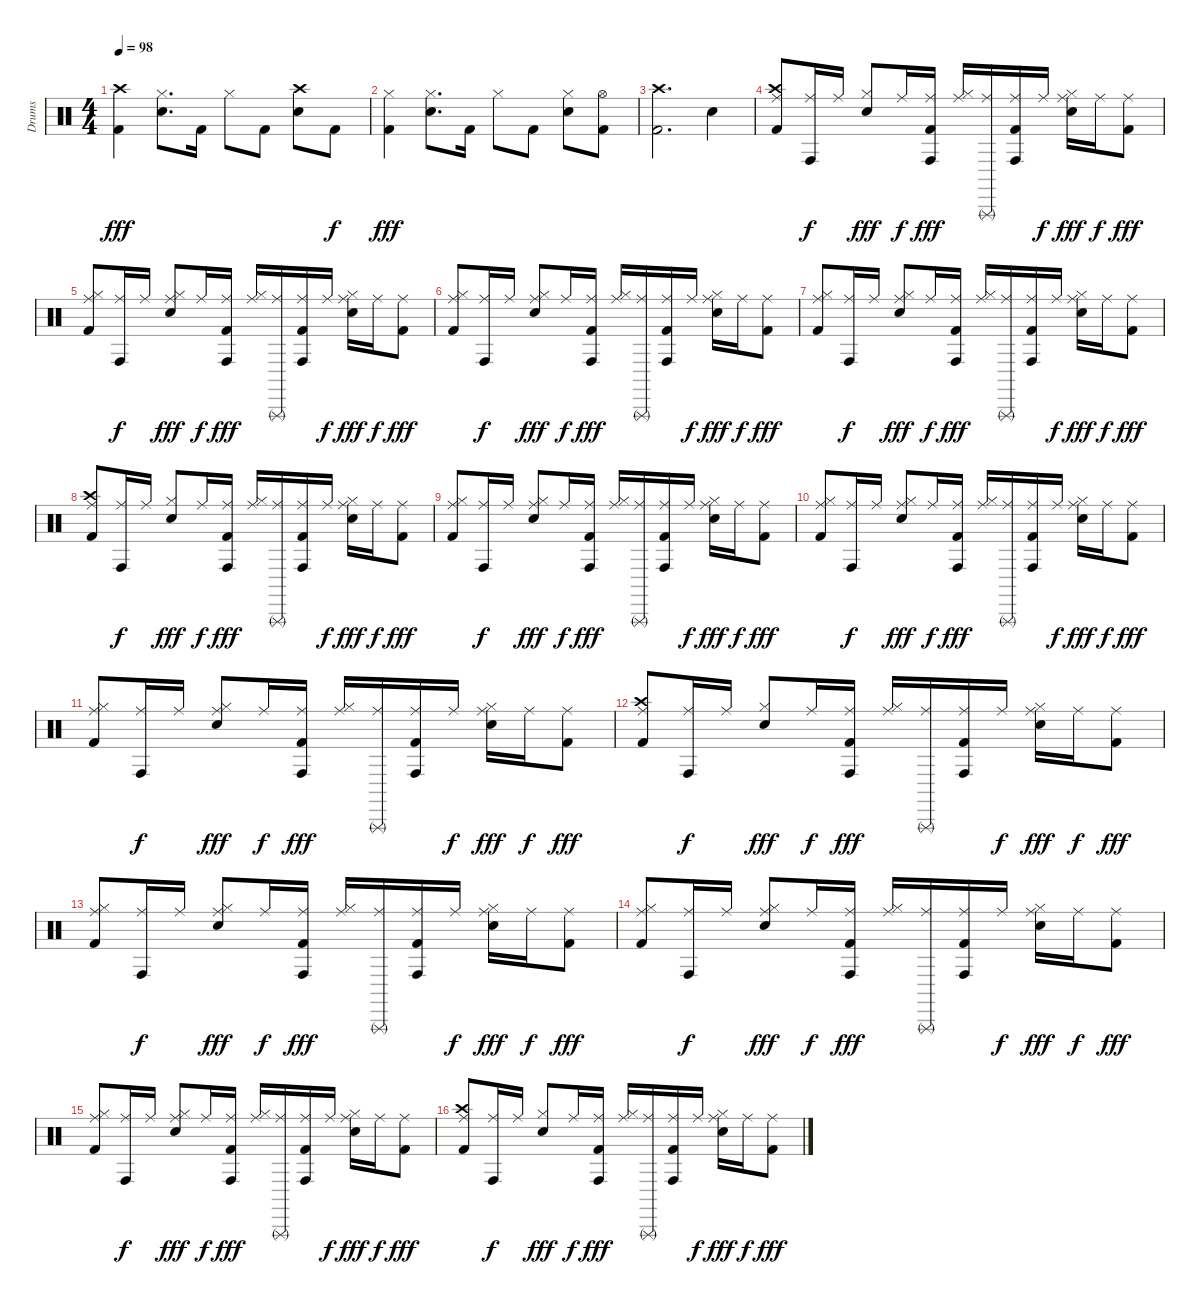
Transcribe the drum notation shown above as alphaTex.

\track ("Drums" "Drums") {instrument percussion}
\staff {score}
\articulation defaults
\ts (4 4)
\tempo 98
\clef neutral
\ks c
("Kick (hit) 2" "Crash high (hit)").4{dy fff} ("Snare (hit) 2" "Hi-Hat (closed)").8{d} "Kick (hit) 2".16 "Hi-Hat (closed)".8 "Kick (hit) 2".8 ("Snare (hit) 2" "Crash high (hit)").8 "Kick (hit) 2".8{dy f} |
("Kick (hit) 2" "Hi-Hat (closed)").4{dy fff} ("Snare (hit) 2" "Hi-Hat (closed)").8{d} "Kick (hit) 2".16 "Hi-Hat (closed)".8 "Kick (hit) 2".8 ("Snare (hit) 2" "Hi-Hat (closed)").8 ("Kick (hit) 2" "Hi-Hat (open)").8 |
("Crash high (hit)" "Kick (hit) 2").2{d} "Snare (hit) 2".4 |
("Kick (hit) 2" "Crash high (hit)" "Ride (middle)").8 ("Conga high (hit)" "Ride (middle)").16{dy f} "Ride (middle)".16 ("Snare (hit) 2" "Hi-Hat (closed)").8{dy fff} "Ride (middle)".16{dy f} ("Conga high (hit)" "Kick (hit) 2" "Ride (middle)").16{dy fff} ("Hi-Hat (closed)" "Ride (middle)").16 ("Ride (middle)" "Triangle (rnute)").16 ("Conga high (hit)" "Kick (hit) 2" "Ride (middle)").16 "Ride (middle)".16{dy f} ("Snare (hit) 2" "Hi-Hat (closed)" "Ride (middle)").16{dy fff} "Ride (middle)".16{dy f} ("Kick (hit) 2" "Ride (middle)").8{dy fff} |
("Kick (hit) 2" "Hi-Hat (closed)" "Ride (middle)").8 ("Conga high (hit)" "Ride (middle)").16{dy f} "Ride (middle)".16 ("Snare (hit) 2" "Hi-Hat (closed)" "Ride (middle)").8{dy fff} "Ride (middle)".16{dy f} ("Conga high (hit)" "Kick (hit) 2" "Ride (middle)").16{dy fff} ("Hi-Hat (closed)" "Ride (middle)").16 ("Triangle (rnute)" "Ride (middle)").16 ("Conga high (hit)" "Kick (hit) 2" "Ride (middle)").16 "Ride (middle)".16{dy f} ("Snare (hit) 2" "Hi-Hat (closed)" "Ride (middle)").16{dy fff} "Ride (middle)".16{dy f} ("Kick (hit) 2" "Ride (middle)").8{dy fff} |
("Kick (hit) 2" "Hi-Hat (closed)" "Ride (middle)").8 ("Conga high (hit)" "Ride (middle)").16{dy f} "Ride (middle)".16 ("Snare (hit) 2" "Hi-Hat (closed)" "Ride (middle)").8{dy fff} "Ride (middle)".16{dy f} ("Conga high (hit)" "Kick (hit) 2" "Ride (middle)").16{dy fff} ("Hi-Hat (closed)" "Ride (middle)").16 ("Triangle (rnute)" "Ride (middle)").16 ("Conga high (hit)" "Kick (hit) 2" "Ride (middle)").16 "Ride (middle)".16{dy f} ("Snare (hit) 2" "Hi-Hat (closed)" "Ride (middle)").16{dy fff} "Ride (middle)".16{dy f} ("Kick (hit) 2" "Ride (middle)").8{dy fff} |
("Kick (hit) 2" "Hi-Hat (closed)" "Ride (middle)").8 ("Conga high (hit)" "Ride (middle)").16{dy f} "Ride (middle)".16 ("Snare (hit) 2" "Hi-Hat (closed)" "Ride (middle)").8{dy fff} "Ride (middle)".16{dy f} ("Conga high (hit)" "Kick (hit) 2" "Ride (middle)").16{dy fff} ("Hi-Hat (closed)" "Ride (middle)").16 ("Triangle (rnute)" "Ride (middle)").16 ("Conga high (hit)" "Kick (hit) 2" "Ride (middle)").16 "Ride (middle)".16{dy f} ("Snare (hit) 2" "Hi-Hat (closed)" "Ride (middle)").16{dy fff} "Ride (middle)".16{dy f} ("Kick (hit) 2" "Ride (middle)").8{dy fff} |
("Kick (hit) 2" "Crash high (hit)" "Ride (middle)").8 ("Conga high (hit)" "Ride (middle)").16{dy f} "Ride (middle)".16 ("Snare (hit) 2" "Hi-Hat (closed)").8{dy fff} "Ride (middle)".16{dy f} ("Conga high (hit)" "Kick (hit) 2" "Ride (middle)").16{dy fff} ("Hi-Hat (closed)" "Ride (middle)").16 ("Ride (middle)" "Triangle (rnute)").16 ("Conga high (hit)" "Kick (hit) 2" "Ride (middle)").16 "Ride (middle)".16{dy f} ("Snare (hit) 2" "Hi-Hat (closed)" "Ride (middle)").16{dy fff} "Ride (middle)".16{dy f} ("Kick (hit) 2" "Ride (middle)").8{dy fff} |
("Kick (hit) 2" "Hi-Hat (closed)" "Ride (middle)").8 ("Conga high (hit)" "Ride (middle)").16{dy f} "Ride (middle)".16 ("Snare (hit) 2" "Hi-Hat (closed)" "Ride (middle)").8{dy fff} "Ride (middle)".16{dy f} ("Conga high (hit)" "Kick (hit) 2" "Ride (middle)").16{dy fff} ("Hi-Hat (closed)" "Ride (middle)").16 ("Triangle (rnute)" "Ride (middle)").16 ("Conga high (hit)" "Kick (hit) 2" "Ride (middle)").16 "Ride (middle)".16{dy f} ("Snare (hit) 2" "Hi-Hat (closed)" "Ride (middle)").16{dy fff} "Ride (middle)".16{dy f} ("Kick (hit) 2" "Ride (middle)").8{dy fff} |
("Kick (hit) 2" "Hi-Hat (closed)" "Ride (middle)").8 ("Conga high (hit)" "Ride (middle)").16{dy f} "Ride (middle)".16 ("Snare (hit) 2" "Hi-Hat (closed)" "Ride (middle)").8{dy fff} "Ride (middle)".16{dy f} ("Conga high (hit)" "Kick (hit) 2" "Ride (middle)").16{dy fff} ("Hi-Hat (closed)" "Ride (middle)").16 ("Triangle (rnute)" "Ride (middle)").16 ("Conga high (hit)" "Kick (hit) 2" "Ride (middle)").16 "Ride (middle)".16{dy f} ("Snare (hit) 2" "Hi-Hat (closed)" "Ride (middle)").16{dy fff} "Ride (middle)".16{dy f} ("Kick (hit) 2" "Ride (middle)").8{dy fff} |
("Kick (hit) 2" "Hi-Hat (closed)" "Ride (middle)").8 ("Conga high (hit)" "Ride (middle)").16{dy f} "Ride (middle)".16 ("Snare (hit) 2" "Hi-Hat (closed)" "Ride (middle)").8{dy fff} "Ride (middle)".16{dy f} ("Conga high (hit)" "Kick (hit) 2" "Ride (middle)").16{dy fff} ("Hi-Hat (closed)" "Ride (middle)").16 ("Triangle (rnute)" "Ride (middle)").16 ("Conga high (hit)" "Kick (hit) 2" "Ride (middle)").16 "Ride (middle)".16{dy f} ("Snare (hit) 2" "Hi-Hat (closed)" "Ride (middle)").16{dy fff} "Ride (middle)".16{dy f} ("Kick (hit) 2" "Ride (middle)").8{dy fff} |
("Kick (hit) 2" "Crash high (hit)" "Ride (middle)").8 ("Conga high (hit)" "Ride (middle)").16{dy f} "Ride (middle)".16 ("Snare (hit) 2" "Hi-Hat (closed)").8{dy fff} "Ride (middle)".16{dy f} ("Conga high (hit)" "Kick (hit) 2" "Ride (middle)").16{dy fff} ("Hi-Hat (closed)" "Ride (middle)").16 ("Ride (middle)" "Triangle (rnute)").16 ("Conga high (hit)" "Kick (hit) 2" "Ride (middle)").16 "Ride (middle)".16{dy f} ("Snare (hit) 2" "Hi-Hat (closed)" "Ride (middle)").16{dy fff} "Ride (middle)".16{dy f} ("Kick (hit) 2" "Ride (middle)").8{dy fff} |
("Kick (hit) 2" "Hi-Hat (closed)" "Ride (middle)").8 ("Conga high (hit)" "Ride (middle)").16{dy f} "Ride (middle)".16 ("Snare (hit) 2" "Hi-Hat (closed)" "Ride (middle)").8{dy fff} "Ride (middle)".16{dy f} ("Conga high (hit)" "Kick (hit) 2" "Ride (middle)").16{dy fff} ("Hi-Hat (closed)" "Ride (middle)").16 ("Triangle (rnute)" "Ride (middle)").16 ("Conga high (hit)" "Kick (hit) 2" "Ride (middle)").16 "Ride (middle)".16{dy f} ("Snare (hit) 2" "Hi-Hat (closed)" "Ride (middle)").16{dy fff} "Ride (middle)".16{dy f} ("Kick (hit) 2" "Ride (middle)").8{dy fff} |
("Kick (hit) 2" "Hi-Hat (closed)" "Ride (middle)").8 ("Conga high (hit)" "Ride (middle)").16{dy f} "Ride (middle)".16 ("Snare (hit) 2" "Hi-Hat (closed)" "Ride (middle)").8{dy fff} "Ride (middle)".16{dy f} ("Conga high (hit)" "Kick (hit) 2" "Ride (middle)").16{dy fff} ("Hi-Hat (closed)" "Ride (middle)").16 ("Triangle (rnute)" "Ride (middle)").16 ("Conga high (hit)" "Kick (hit) 2" "Ride (middle)").16 "Ride (middle)".16{dy f} ("Snare (hit) 2" "Hi-Hat (closed)" "Ride (middle)").16{dy fff} "Ride (middle)".16{dy f} ("Kick (hit) 2" "Ride (middle)").8{dy fff} |
("Kick (hit) 2" "Hi-Hat (closed)" "Ride (middle)").8 ("Conga high (hit)" "Ride (middle)").16{dy f} "Ride (middle)".16 ("Snare (hit) 2" "Hi-Hat (closed)" "Ride (middle)").8{dy fff} "Ride (middle)".16{dy f} ("Conga high (hit)" "Kick (hit) 2" "Ride (middle)").16{dy fff} ("Hi-Hat (closed)" "Ride (middle)").16 ("Triangle (rnute)" "Ride (middle)").16 ("Conga high (hit)" "Kick (hit) 2" "Ride (middle)").16 "Ride (middle)".16{dy f} ("Snare (hit) 2" "Hi-Hat (closed)" "Ride (middle)").16{dy fff} "Ride (middle)".16{dy f} ("Kick (hit) 2" "Ride (middle)").8{dy fff} |
("Kick (hit) 2" "Crash high (hit)" "Ride (middle)").8 ("Conga high (hit)" "Ride (middle)").16{dy f} "Ride (middle)".16 ("Snare (hit) 2" "Hi-Hat (closed)").8{dy fff} "Ride (middle)".16{dy f} ("Conga high (hit)" "Kick (hit) 2" "Ride (middle)").16{dy fff} ("Hi-Hat (closed)" "Ride (middle)").16 ("Ride (middle)" "Triangle (rnute)").16 ("Conga high (hit)" "Kick (hit) 2" "Ride (middle)").16 "Ride (middle)".16{dy f} ("Snare (hit) 2" "Hi-Hat (closed)" "Ride (middle)").16{dy fff} "Ride (middle)".16{dy f} ("Kick (hit) 2" "Ride (middle)").8{dy fff}
